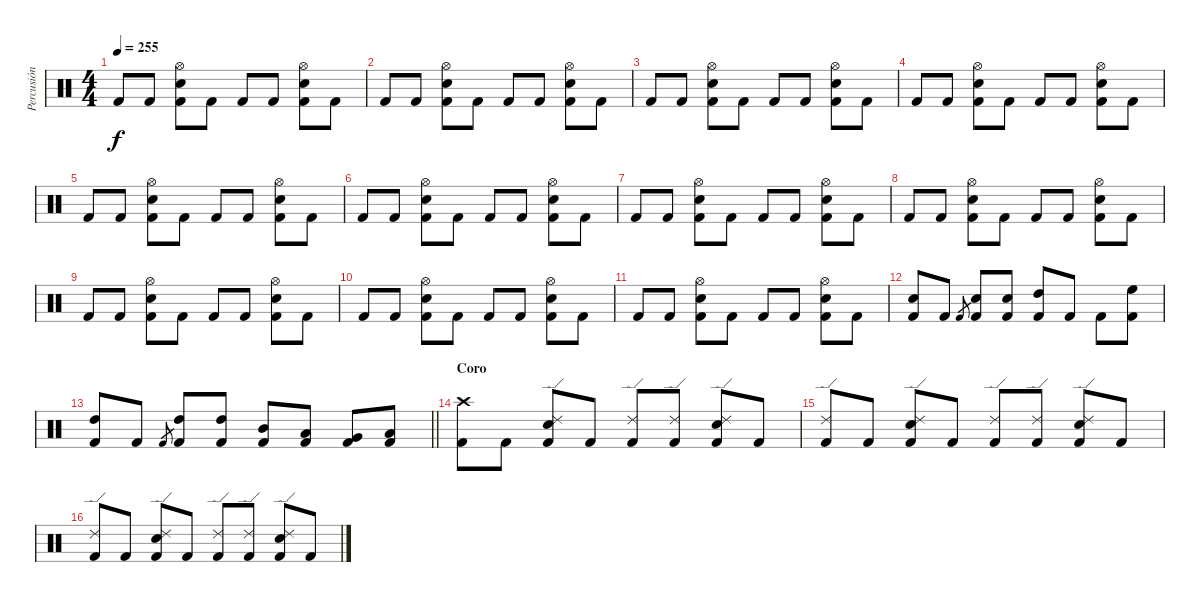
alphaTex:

\track ("Percusión" "Percusión") {instrument percussion}
\staff {score}
\articulation defaults
\ts (4 4)
\tempo 255
\clef neutral
\ks c "Kick (hit) 2".8{dy f} "Kick (hit) 2".8
("Kick (hit) 2" "Electric Snare (hit)" "Hi-Hat (open)").8 "Kick (hit) 2".8 "Kick (hit) 2".8 "Kick (hit) 2".8 ("Kick (hit) 2" "Electric Snare (hit)" "Hi-Hat (open)").8 "Kick (hit) 2".8 |
"Kick (hit) 2".8 "Kick (hit) 2".8 ("Kick (hit) 2" "Electric Snare (hit)" "Hi-Hat (open)").8 "Kick (hit) 2".8 "Kick (hit) 2".8 "Kick (hit) 2".8 ("Kick (hit) 2" "Electric Snare (hit)" "Hi-Hat (open)").8 "Kick (hit) 2".8 |
"Kick (hit) 2".8 "Kick (hit) 2".8 ("Kick (hit) 2" "Electric Snare (hit)" "Hi-Hat (open)").8 "Kick (hit) 2".8 "Kick (hit) 2".8 "Kick (hit) 2".8 ("Kick (hit) 2" "Electric Snare (hit)" "Hi-Hat (open)").8 "Kick (hit) 2".8 |
"Kick (hit) 2".8 "Kick (hit) 2".8 ("Kick (hit) 2" "Electric Snare (hit)" "Hi-Hat (open)").8 "Kick (hit) 2".8 "Kick (hit) 2".8 "Kick (hit) 2".8 ("Kick (hit) 2" "Electric Snare (hit)" "Hi-Hat (open)").8 "Kick (hit) 2".8 |
"Kick (hit) 2".8 "Kick (hit) 2".8 ("Kick (hit) 2" "Electric Snare (hit)" "Hi-Hat (open)").8 "Kick (hit) 2".8 "Kick (hit) 2".8 "Kick (hit) 2".8 ("Kick (hit) 2" "Electric Snare (hit)" "Hi-Hat (open)").8 "Kick (hit) 2".8 |
"Kick (hit) 2".8 "Kick (hit) 2".8 ("Kick (hit) 2" "Electric Snare (hit)" "Hi-Hat (open)").8 "Kick (hit) 2".8 "Kick (hit) 2".8 "Kick (hit) 2".8 ("Kick (hit) 2" "Electric Snare (hit)" "Hi-Hat (open)").8 "Kick (hit) 2".8 |
"Kick (hit) 2".8 "Kick (hit) 2".8 ("Kick (hit) 2" "Electric Snare (hit)" "Hi-Hat (open)").8 "Kick (hit) 2".8 "Kick (hit) 2".8 "Kick (hit) 2".8 ("Kick (hit) 2" "Electric Snare (hit)" "Hi-Hat (open)").8 "Kick (hit) 2".8 |
"Kick (hit) 2".8 "Kick (hit) 2".8 ("Kick (hit) 2" "Electric Snare (hit)" "Hi-Hat (open)").8 "Kick (hit) 2".8 "Kick (hit) 2".8 "Kick (hit) 2".8 ("Kick (hit) 2" "Electric Snare (hit)" "Hi-Hat (open)").8 "Kick (hit) 2".8 |
"Kick (hit) 2".8 "Kick (hit) 2".8 ("Kick (hit) 2" "Electric Snare (hit)" "Hi-Hat (open)").8 "Kick (hit) 2".8 "Kick (hit) 2".8 "Kick (hit) 2".8 ("Kick (hit) 2" "Electric Snare (hit)" "Hi-Hat (open)").8 "Kick (hit) 2".8 |
"Kick (hit) 2".8 "Kick (hit) 2".8 ("Kick (hit) 2" "Electric Snare (hit)" "Hi-Hat (open)").8 "Kick (hit) 2".8 "Kick (hit) 2".8 "Kick (hit) 2".8 ("Kick (hit) 2" "Electric Snare (hit)" "Hi-Hat (open)").8 "Kick (hit) 2".8 |
"Kick (hit) 2".8 "Kick (hit) 2".8 ("Kick (hit) 2" "Electric Snare (hit)" "Hi-Hat (open)").8 "Kick (hit) 2".8 "Kick (hit) 2".8 "Kick (hit) 2".8 ("Kick (hit) 2" "Electric Snare (hit)" "Hi-Hat (open)").8 "Kick (hit) 2".8 |
("Kick (hit) 2" "Electric Snare (hit)").8 "Kick (hit) 2".8 "Kick (hit) 2".8{gr} ("Kick (hit) 2" "Electric Snare (hit)").8 ("Kick (hit) 2" "Electric Snare (hit)").8 ("Kick (hit) 2" "High Tom (hit)").8 "Kick (hit) 2".8 "Kick (hit) 2".8 ("Kick (hit) 2" "High Floor Tom (hit)").8 |
\barLineRight lightlight
("Kick (hit) 2" "High Tom (hit)").8 "Kick (hit) 2".8 "Kick (hit) 2".8{gr} ("Kick (hit) 2" "High Tom (hit)").8 ("Kick (hit) 2" "High Tom (hit)").8 ("Kick (hit) 2" "Mid Tom (hit)").8 ("Kick (hit) 2" "Low Tom (hit)").8 ("Kick (hit) 2" "Very Low Tom (hit)").8 ("Kick (hit) 2" "Low Floor Tom (hit)").8 |
\section ("" "Coro")
("Kick (hit) 2" "Crash high (hit)").8 "Kick (hit) 2".8 ("Kick (hit) 2" "Electric Snare (hit)" "Ride (edge) 2").8 "Kick (hit) 2".8 ("Kick (hit) 2" "Ride (edge) 2").8 ("Kick (hit) 2" "Ride (edge) 2").8 ("Kick (hit) 2" "Electric Snare (hit)" "Ride (edge) 2").8 "Kick (hit) 2".8 |
("Kick (hit) 2" "Ride (edge) 2").8 "Kick (hit) 2".8 ("Kick (hit) 2" "Electric Snare (hit)" "Ride (edge) 2").8 "Kick (hit) 2".8 ("Kick (hit) 2" "Ride (edge) 2").8 ("Kick (hit) 2" "Ride (edge) 2").8 ("Kick (hit) 2" "Electric Snare (hit)" "Ride (edge) 2").8 "Kick (hit) 2".8 |
("Kick (hit) 2" "Ride (edge) 2").8 "Kick (hit) 2".8 ("Kick (hit) 2" "Electric Snare (hit)" "Ride (edge) 2").8 "Kick (hit) 2".8 ("Kick (hit) 2" "Ride (edge) 2").8 ("Kick (hit) 2" "Ride (edge) 2").8 ("Kick (hit) 2" "Electric Snare (hit)" "Ride (edge) 2").8 "Kick (hit) 2".8
